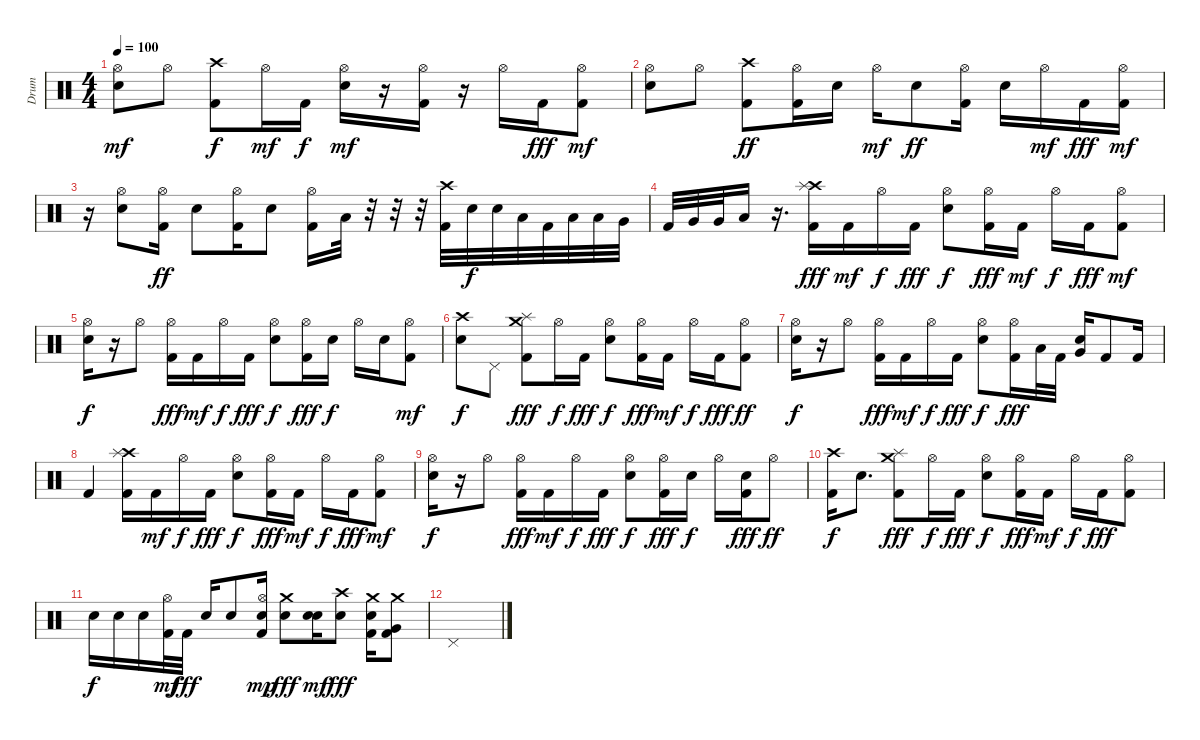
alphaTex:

\track ("Drum" "Drum") {instrument percussion}
\staff {score}
\articulation defaults
\ts (4 4)
\tempo 100
\clef neutral
\ks c
("Snare (hit) 2" "Hi-Hat (open)").8{dy mf} "Hi-Hat (open)".8 ("Crash high (hit)" "Kick (hit) 2").8{dy f} "Hi-Hat (open)".16{dy mf} "Kick (hit) 2".16{dy f} ("Snare (hit) 2" "Hi-Hat (open)").16{dy mf} r.16 ("Hi-Hat (open)" "Kick (hit) 2").16 r.16 "Hi-Hat (open)".16 "Kick (hit) 2".16{dy fff} ("Hi-Hat (open)" "Kick (hit) 2").8{dy mf} |
("Snare (hit) 2" "Hi-Hat (open)").8 "Hi-Hat (open)".8 ("Crash high (hit)" "Kick (hit) 2").8{dy ff} ("Hi-Hat (open)" "Kick (hit) 2").16 "Snare (hit) 2".16 "Hi-Hat (open)".16{dy mf} "Snare (hit) 2".8{dy ff} ("Hi-Hat (open)" "Kick (hit) 2").16 "Snare (hit) 2".16 "Hi-Hat (open)".16{dy mf} "Kick (hit) 2".16{dy fff} ("Hi-Hat (open)" "Kick (hit) 2").16{dy mf} |
r.16 ("Snare (hit) 2" "Hi-Hat (open)").8 ("Hi-Hat (open)" "Kick (hit) 2").16{dy ff} "Snare (hit) 2".8 ("Hi-Hat (open)" "Kick (hit) 2").16 "Snare (hit) 2".8 ("Hi-Hat (open)" "Kick (hit) 2").16 "Low Tom (hit)".32 r.32 r.32 r.32 ("Crash high (hit)" "Kick (hit) 2").32 "Snare (hit) 2".32{dy f} "Snare (hit) 2".32 "Low Tom (hit)".32 "Kick (hit) 2".32 "Low Tom (hit)".32 "Low Tom (hit)".32 "Very Low Tom (hit)".32 |
"Kick (hit) 2".32 "Very Low Tom (hit)".32 "Very Low Tom (hit)".32 "Low Floor Tom (hit)".16 r.16{d} ("Crash high (hit)" "Splash (hit)" "Kick (hit) 2").16{dy fff} "Kick (hit) 2".16{dy mf} "Hi-Hat (open)".16{dy f} "Kick (hit) 2".16{dy fff} ("Snare (hit) 2" "Hi-Hat (open)").8{dy f} ("Hi-Hat (open)" "Kick (hit) 2").16{dy fff} "Kick (hit) 2".16{dy mf} "Hi-Hat (open)".16{dy f} "Kick (hit) 2".16{dy fff} ("Hi-Hat (open)" "Kick (hit) 2").8{dy mf} |
("Snare (hit) 2" "Hi-Hat (open)").16{dy f} r.16 "Hi-Hat (open)".8 ("Hi-Hat (open)" "Kick (hit) 2").16{dy fff} "Kick (hit) 2".16{dy mf} "Hi-Hat (open)".16{dy f} "Kick (hit) 2".16{dy fff} ("Snare (hit) 2" "Hi-Hat (open)").8{dy f} ("Hi-Hat (open)" "Kick (hit) 2").16{dy fff} "Snare (hit) 2".16{dy f} "Hi-Hat (open)".16 "Snare (hit) 2".16 ("Hi-Hat (open)" "Kick (hit) 2").8{dy mf} |
("Crash high (hit)" "Snare (hit) 2").8{dy f} "Pedal Hi-Hat (hit)".8 ("Splash (hit)" "Crash medium (hit)" "Kick (hit) 2").8{dy fff} "Hi-Hat (open)".16{dy f} "Kick (hit) 2".16{dy fff} ("Snare (hit) 2" "Hi-Hat (open)").8{dy f} ("Hi-Hat (open)" "Kick (hit) 2").16{dy fff} "Kick (hit) 2".16{dy mf} "Hi-Hat (open)".16{dy f} "Kick (hit) 2".16{dy fff} ("Hi-Hat (open)" "Kick (hit) 2").8{dy ff} |
("Snare (hit) 2" "Hi-Hat (open)").16{dy f} r.16 "Hi-Hat (open)".8 ("Hi-Hat (open)" "Kick (hit) 2").16{dy fff} "Kick (hit) 2".16{dy mf} "Hi-Hat (open)".16{dy f} "Kick (hit) 2".16{dy fff} ("Snare (hit) 2" "Hi-Hat (open)").8{dy f} ("Hi-Hat (open)" "Kick (hit) 2").16{dy fff} "Low Floor Tom (hit)".32 "Kick (hit) 2".32 ("Snare (hit) 2" "Very Low Tom (hit)").16 "Kick (hit) 2".8 "Kick (hit) 2".16 |
"Kick (hit) 2".4 ("Crash high (hit)" "Splash (hit)" "Kick (hit) 2").16 "Kick (hit) 2".16{dy mf} "Hi-Hat (open)".16{dy f} "Kick (hit) 2".16{dy fff} ("Snare (hit) 2" "Hi-Hat (open)").8{dy f} ("Hi-Hat (open)" "Kick (hit) 2").16{dy fff} "Kick (hit) 2".16{dy mf} "Hi-Hat (open)".16{dy f} "Kick (hit) 2".16{dy fff} ("Hi-Hat (open)" "Kick (hit) 2").8{dy mf} |
("Snare (hit) 2" "Hi-Hat (open)").16{dy f} r.16 "Hi-Hat (open)".8 ("Hi-Hat (open)" "Kick (hit) 2").16{dy fff} "Kick (hit) 2".16{dy mf} "Hi-Hat (open)".16{dy f} "Kick (hit) 2".16{dy fff} ("Snare (hit) 2" "Hi-Hat (open)").8{dy f} ("Hi-Hat (open)" "Kick (hit) 2").16{dy fff} "Snare (hit) 2".16{dy f} "Hi-Hat (open)".16 ("Snare (hit) 2" "Kick (hit) 2").16{dy fff} "Hi-Hat (open)".8{dy ff} |
("Crash high (hit)" "Kick (hit) 2").16{dy f} "Snare (hit) 2".8{d} ("Splash (hit)" "Crash medium (hit)" "Kick (hit) 2").8{dy fff} "Hi-Hat (open)".16{dy f} "Kick (hit) 2".16{dy fff} ("Snare (hit) 2" "Hi-Hat (open)").8{dy f} ("Hi-Hat (open)" "Kick (hit) 2").16{dy fff} "Kick (hit) 2".16{dy mf} "Hi-Hat (open)".16{dy f} "Kick (hit) 2".16{dy fff} ("Hi-Hat (open)" "Kick (hit) 2").8 |
"Snare (hit) 2".16{dy f} "Snare (hit) 2".16 "Snare (hit) 2".16 ("Hi-Hat (open)" "Kick (hit) 2").32{dy mf} "Kick (hit) 2".32{dy fff} "Snare (hit) 2".16 "Snare (hit) 2".8 ("Snare (hit) 2" "Hi-Hat (open)" "Kick (hit) 2").16{dy mp} ("Crash medium (hit)" "Snare (hit) 2").8{dy fff} ("Snare (hit) 2" "Snare (hit) 2").16{dy mf} ("Crash high (hit)" "Snare (hit) 2").8{dy fff} ("Crash medium (hit)" "Snare (hit) 2" "Kick (hit) 2").16 ("Crash medium (hit)" "Very Low Tom (hit)" "Kick (hit) 2").8 |
"Pedal Hi-Hat (hit)".1
